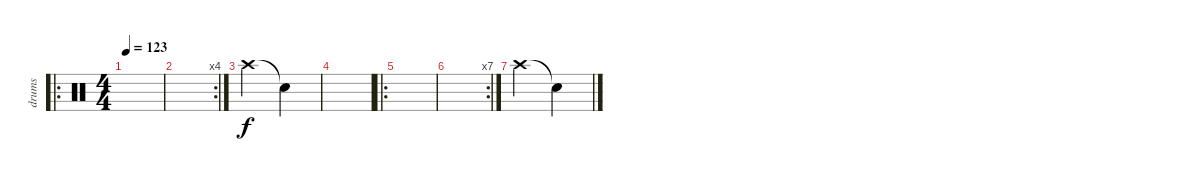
\track ("drums" "drums") {instrument percussion}
\staff {score}
\articulation defaults
\ro
\ts (4 4)
\tempo 123
\clef neutral
\ks c
|
\rc 4
|
"Crash high (hit)".4 "Snare (hit)"{t}.4 |
|
\ro
|
\rc 7
|
"Crash high (hit)".4 "Snare (hit)"{t}.4
